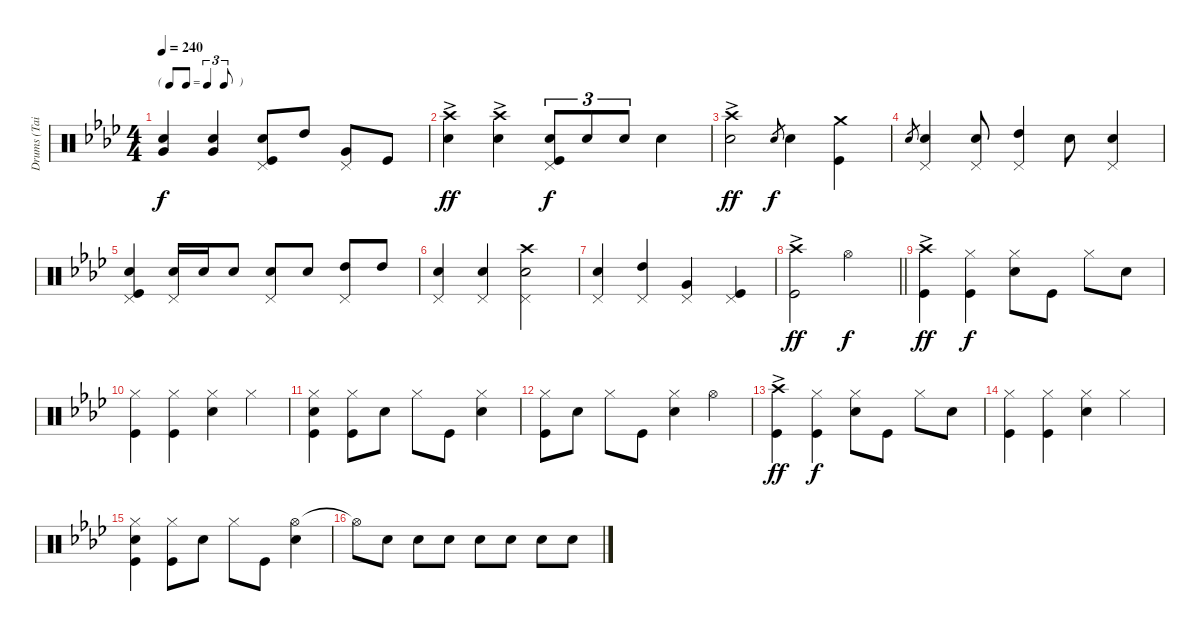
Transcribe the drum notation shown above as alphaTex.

\track ("Drums (Tainaka Ritsu)" "Drums (Tai") {instrument percussion}
\staff {score}
\articulation defaults
\ts (4 4)
\tf triplet8th
\tempo 240
\clef neutral
\ks ab
("Snare (hit) 2" "Very Low Tom (hit)").4{dy f} ("Very Low Tom (hit)" "Snare (hit) 2").4 ("Pedal Hi-Hat (hit)" "Kick (hit)" "Snare (hit) 2").8 "High Tom (hit)".8 ("Pedal Hi-Hat (hit)" "Very Low Tom (hit)").8 "Kick (hit)".8 |
("Crash high (hit)"{ac} "Snare (hit) 2").4{dy ff} ("Snare (hit) 2" "Crash high (hit)"{ac}).4 ("Kick (hit)" "Pedal Hi-Hat (hit)" "Snare (hit) 2").8{tu (3 2) dy f} "Snare (hit) 2".8{tu (3 2)} "Snare (hit) 2".8{tu (3 2)} "Snare (hit) 2".4 |
("Snare (hit) 2" "Crash high (hit)"{ac}).2{dy ff} "Snare (hit) 2".8{gr dy f} "Snare (hit) 2".4 ("Crash medium (hit)" "Kick (hit)").4 |
"Snare (hit) 2".8{gr} ("Pedal Hi-Hat (hit)" "Snare (hit) 2").4 ("Snare (hit) 2" "Pedal Hi-Hat (hit)").8 ("Pedal Hi-Hat (hit)" "High Tom (hit)").4 "Snare (hit) 2".8 ("Snare (hit) 2" "Pedal Hi-Hat (hit)").4 |
("Pedal Hi-Hat (hit)" "Kick (hit)" "Snare (hit) 2").4 ("Pedal Hi-Hat (hit)" "Snare (hit) 2").16 "Snare (hit) 2".16 "Snare (hit) 2".8 ("Pedal Hi-Hat (hit)" "Snare (hit) 2").8 "Snare (hit) 2".8 ("Pedal Hi-Hat (hit)" "High Tom (hit)").8 "High Tom (hit)".8 |
("Pedal Hi-Hat (hit)" "Snare (hit) 2").4 ("Snare (hit) 2" "Pedal Hi-Hat (hit)").4 ("Crash high (hit)" "Snare (hit) 2" "Pedal Hi-Hat (hit)").2 |
("Snare (hit) 2" "Pedal Hi-Hat (hit)").4 ("High Tom (hit)" "Pedal Hi-Hat (hit)").4 ("Very Low Tom (hit)" "Pedal Hi-Hat (hit)").4 ("Pedal Hi-Hat (hit)" "Kick (hit)").4 |
\barLineRight lightlight
("Crash high (hit)"{ac} "Kick (hit)").2{dy ff} "Hi-Hat (open)".2{dy f} |
("Crash high (hit)"{ac} "Kick (hit)").4{dy ff} ("Kick (hit)" "Hi-Hat (closed)").4{dy f} ("Hi-Hat (closed)" "Snare (hit) 2").8 "Kick (hit)".8 "Hi-Hat (closed)".8 "Snare (hit) 2".8 |
("Hi-Hat (closed)" "Kick (hit)").4 ("Hi-Hat (closed)" "Kick (hit)").4 ("Hi-Hat (closed)" "Snare (hit) 2").4 "Hi-Hat (closed)".4 |
("Hi-Hat (closed)" "Snare (hit) 2" "Kick (hit)").4 ("Kick (hit)" "Hi-Hat (closed)").8 "Snare (hit) 2".8 "Hi-Hat (closed)".8 "Kick (hit)".8 ("Hi-Hat (closed)" "Snare (hit) 2").4 |
("Hi-Hat (closed)" "Kick (hit)").8 "Snare (hit) 2".8 "Hi-Hat (closed)".8 "Kick (hit)".8 ("Hi-Hat (closed)" "Snare (hit) 2").4 "Hi-Hat (open)".4 |
("Crash high (hit)"{ac} "Kick (hit)").4{dy ff} ("Hi-Hat (closed)" "Kick (hit)").4{dy f} ("Hi-Hat (closed)" "Snare (hit) 2").8 "Kick (hit)".8 "Hi-Hat (closed)".8 "Snare (hit) 2".8 |
("Kick (hit)" "Hi-Hat (closed)").4 ("Kick (hit)" "Hi-Hat (closed)").4 ("Hi-Hat (closed)" "Snare (hit) 2").4 "Hi-Hat (closed)".4 |
("Hi-Hat (closed)" "Kick (hit)" "Snare (hit) 2").4 ("Hi-Hat (closed)" "Kick (hit)").8 "Snare (hit) 2".8 "Hi-Hat (closed)".8 "Kick (hit)".8 ("Hi-Hat (open)" "Snare (hit) 2").4 |
"Hi-Hat (open)"{t}.8 "Snare (hit) 2".8 "Snare (hit) 2".8 "Snare (hit) 2".8 "Snare (hit) 2".8 "Snare (hit) 2".8 "Snare (hit) 2".8 "Snare (hit) 2".8
